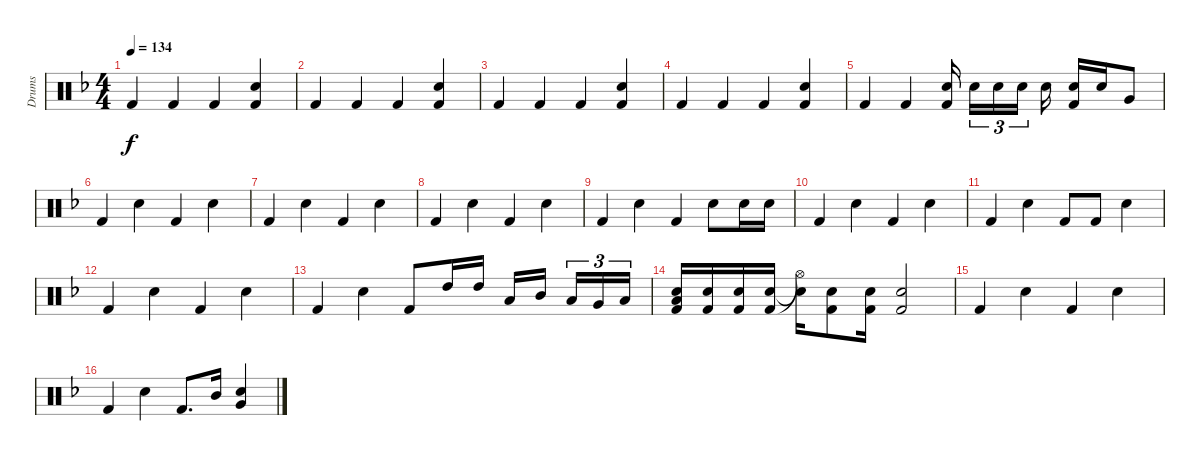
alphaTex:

\track ("Drums" "Drums") {instrument percussion}
\staff {score}
\articulation defaults
\ts (4 4)
\tempo 134
\clef neutral
\ks f "Kick (hit) 2".4{dy f} "Kick (hit) 2".4 "Kick (hit) 2".4
("Kick (hit) 2" "Snare (hit) 2").4 |
"Kick (hit) 2".4 "Kick (hit) 2".4 "Kick (hit) 2".4 ("Kick (hit) 2" "Snare (hit) 2").4 |
"Kick (hit) 2".4 "Kick (hit) 2".4 "Kick (hit) 2".4 ("Kick (hit) 2" "Snare (hit) 2").4 |
"Kick (hit) 2".4 "Kick (hit) 2".4 "Kick (hit) 2".4 ("Kick (hit) 2" "Snare (hit) 2").4 |
"Kick (hit) 2".4 "Kick (hit) 2".4 ("Kick (hit) 2" "Snare (hit) 2").16{beam splitsecondary} "Snare (hit) 2".16{tu (3 2)} "Snare (hit) 2".16{tu (3 2)} "Snare (hit) 2".16{tu (3 2) beam splitsecondary} "Snare (hit) 2".16 ("Kick (hit) 2" "Snare (hit) 2").16 "Snare (hit) 2".16 "Very Low Tom (hit)".8 |
"Kick (hit) 2".4 "Snare (hit) 2".4 "Kick (hit) 2".4 "Snare (hit) 2".4 |
"Kick (hit) 2".4 "Snare (hit) 2".4 "Kick (hit) 2".4 "Snare (hit) 2".4 |
"Kick (hit) 2".4 "Snare (hit) 2".4 "Kick (hit) 2".4 "Snare (hit) 2".4 |
"Kick (hit) 2".4 "Snare (hit) 2".4 "Kick (hit) 2".4 "Snare (hit) 2".8 "Snare (hit) 2".16 "Snare (hit) 2".16 |
"Kick (hit) 2".4 "Snare (hit) 2".4 "Kick (hit) 2".4 "Snare (hit) 2".4 |
"Kick (hit) 2".4 "Snare (hit) 2".4 "Kick (hit) 2".8 "Kick (hit) 2".8 "Snare (hit) 2".4 |
"Kick (hit) 2".4 "Snare (hit) 2".4 "Kick (hit) 2".4 "Snare (hit) 2".4 |
"Kick (hit) 2".4 "Snare (hit) 2".4 "Kick (hit) 2".8 "High Tom (hit)".16 "High Tom (hit)".16 "Low Tom (hit)".16 "Mid Tom (hit)".16{beam splitsecondary} "Low Tom (hit)".16{tu (3 2)} "Very Low Tom (hit)".16{tu (3 2)} "Low Floor Tom (hit)".16{tu (3 2)} |
("Snare (hit) 2" "Low Floor Tom (hit)" "Kick (hit) 2").16 ("Snare (hit) 2" "Kick (hit) 2").16 ("Snare (hit) 2" "Kick (hit) 2").16 ("Snare (hit) 2" "Kick (hit) 2").16 ("Snare (hit) 2"{t} "Hi-Hat (open)"{t}).16 ("Snare (hit) 2" "Kick (hit) 2").8 ("Snare (hit) 2" "Kick (hit) 2").16 ("Snare (hit) 2" "Kick (hit) 2").2 |
"Kick (hit) 2".4 "Snare (hit) 2".4 "Kick (hit) 2".4 "Snare (hit) 2".4 |
"Kick (hit) 2".4 "Snare (hit) 2".4 "Kick (hit) 2".8{d} "Mid Tom (hit)".16 ("Snare (hit) 2" "Very Low Tom (hit)").4
